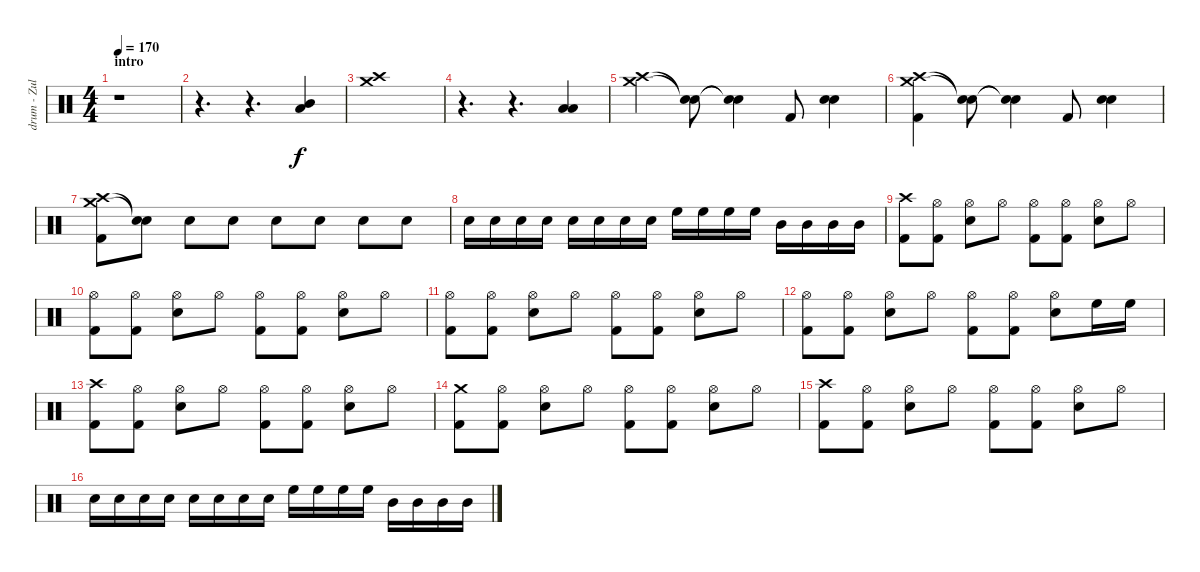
\track ("drum - Zul ???" "drum - Zul") {instrument percussion}
\staff {score}
\articulation defaults
\ts (4 4)
\section ("" "intro")
\tempo 170
\clef neutral
\ks c
r.1{dy f} |
r.4{d} r.4{d} ("Low Tom (hit)" "Mid Tom (hit)").4 |
("Crash medium (hit)" "Crash high (hit)").1 |
r.4{d} r.4{d} ("Low Tom (hit)" "Low Floor Tom (hit)").4 |
("Crash high (hit)" "Crash medium (hit)").4 ("Snare (hit)"{t} "Snare (hit)"{t}).8 ("Snare (hit)"{t} "Snare (hit)"{t}).4 "Kick (hit) 2".8 ("Snare (hit) 2" "Snare (hit) 2").4 |
("Crash medium (hit)" "Crash high (hit)" "Kick (hit) 2").4 ("Snare (hit)"{t} "Snare (hit)"{t}).8 ("Snare (hit)"{t} "Snare (hit)"{t}).4 "Kick (hit) 2".8 ("Snare (hit) 2" "Snare (hit) 2").4 |
("Crash high (hit)" "Crash medium (hit)" "Kick (hit) 2").8 ("Snare (hit)"{t} "Snare (hit)"{t}).8 "Snare (hit) 2".8 "Snare (hit) 2".8 "Snare (hit) 2".8 "Snare (hit) 2".8 "Snare (hit) 2".8 "Snare (hit) 2".8 |
"Snare (hit) 2".16 "Snare (hit) 2".16 "Snare (hit) 2".16 "Snare (hit) 2".16 "Snare (hit) 2".16 "Snare (hit) 2".16 "Snare (hit) 2".16 "Snare (hit) 2".16 "High Floor Tom (hit)".16 "High Floor Tom (hit)".16 "High Floor Tom (hit)".16 "High Floor Tom (hit)".16 "Mid Tom (hit)".16 "Mid Tom (hit)".16 "Mid Tom (hit)".16 "Mid Tom (hit)".16 |
("Crash high (hit)" "Kick (hit) 2").8 ("Hi-Hat (open)" "Kick (hit) 2").8 ("Hi-Hat (open)" "Snare (hit) 2").8 "Hi-Hat (open)".8 ("Hi-Hat (open)" "Kick (hit) 2").8 ("Hi-Hat (open)" "Kick (hit) 2").8 ("Hi-Hat (open)" "Snare (hit) 2").8 "Hi-Hat (open)".8 |
("Hi-Hat (open)" "Kick (hit) 2").8 ("Hi-Hat (open)" "Kick (hit) 2").8 ("Hi-Hat (open)" "Snare (hit) 2").8 "Hi-Hat (open)".8 ("Hi-Hat (open)" "Kick (hit) 2").8 ("Hi-Hat (open)" "Kick (hit) 2").8 ("Hi-Hat (open)" "Snare (hit) 2").8 "Hi-Hat (open)".8 |
("Hi-Hat (open)" "Kick (hit) 2").8 ("Hi-Hat (open)" "Kick (hit) 2").8 ("Hi-Hat (open)" "Snare (hit) 2").8 "Hi-Hat (open)".8 ("Hi-Hat (open)" "Kick (hit) 2").8 ("Hi-Hat (open)" "Kick (hit) 2").8 ("Hi-Hat (open)" "Snare (hit) 2").8 "Hi-Hat (open)".8 |
("Hi-Hat (open)" "Kick (hit) 2").8 ("Hi-Hat (open)" "Kick (hit) 2").8 ("Hi-Hat (open)" "Snare (hit) 2").8 "Hi-Hat (open)".8 ("Hi-Hat (open)" "Kick (hit) 2").8 ("Hi-Hat (open)" "Kick (hit) 2").8 ("Hi-Hat (open)" "Snare (hit) 2").8 "High Floor Tom (hit)".16 "High Floor Tom (hit)".16 |
("Crash high (hit)" "Kick (hit) 2").8 ("Hi-Hat (open)" "Kick (hit) 2").8 ("Hi-Hat (open)" "Snare (hit) 2").8 "Hi-Hat (open)".8 ("Hi-Hat (open)" "Kick (hit) 2").8 ("Hi-Hat (open)" "Kick (hit) 2").8 ("Hi-Hat (open)" "Snare (hit) 2").8 "Hi-Hat (open)".8 |
("Crash medium (hit)" "Kick (hit) 2").8 ("Hi-Hat (open)" "Kick (hit) 2").8 ("Hi-Hat (open)" "Snare (hit) 2").8 "Hi-Hat (open)".8 ("Hi-Hat (open)" "Kick (hit) 2").8 ("Hi-Hat (open)" "Kick (hit) 2").8 ("Hi-Hat (open)" "Snare (hit) 2").8 "Hi-Hat (open)".8 |
("Crash high (hit)" "Kick (hit) 2").8 ("Hi-Hat (open)" "Kick (hit) 2").8 ("Hi-Hat (open)" "Snare (hit) 2").8 "Hi-Hat (open)".8 ("Hi-Hat (open)" "Kick (hit) 2").8 ("Hi-Hat (open)" "Kick (hit) 2").8 ("Hi-Hat (open)" "Snare (hit) 2").8 "Hi-Hat (open)".8 |
"Snare (hit) 2".16 "Snare (hit) 2".16 "Snare (hit) 2".16 "Snare (hit) 2".16 "Snare (hit) 2".16 "Snare (hit) 2".16 "Snare (hit) 2".16 "Snare (hit) 2".16 "High Floor Tom (hit)".16 "High Floor Tom (hit)".16 "High Floor Tom (hit)".16 "High Floor Tom (hit)".16 "Mid Tom (hit)".16 "Mid Tom (hit)".16 "Mid Tom (hit)".16 "Mid Tom (hit)".16
